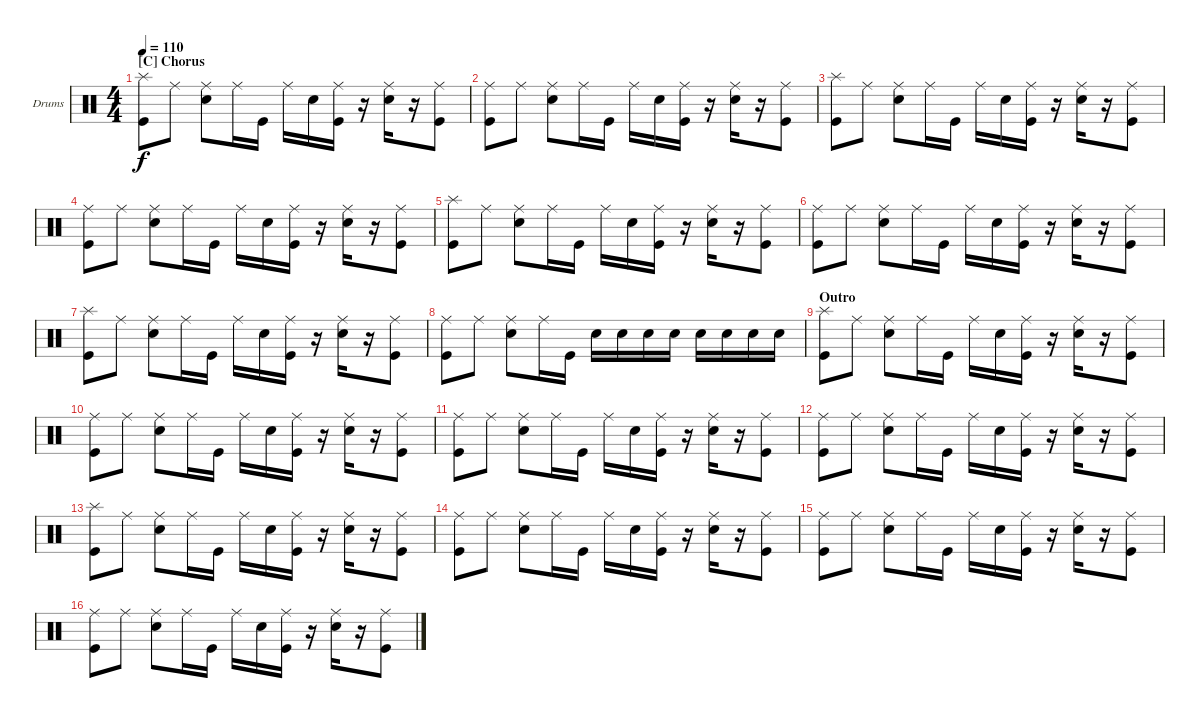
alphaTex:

\defaultSystemsLayout 4
\bracketExtendMode groupsimilarinstruments
\firstSystemTrackNameOrientation horizontal
\otherSystemsTrackNameOrientation horizontal
\track ("Drumkit" "Drums") {instrument percussion}
\staff {score}
\articulation defaults
\ts (4 4)
\section ("C" "Chorus ")
\tempo 110
\clef neutral
\ks c
("Splash (hit)" "Kick (hit)").8{dy f} "Ride (middle)".8 ("Snare (hit) 2" "Ride (middle)").8 "Ride (middle)".16 "Kick (hit)".16 "Ride (middle)".16 "Snare (hit) 2".16 ("Kick (hit)" "Ride (middle)").16 r.16 ("Snare (hit) 2" "Ride (middle)").16 r.16 ("Kick (hit)" "Ride (middle)").8 |
("Kick (hit)" "Ride (middle)").8 "Ride (middle)".8 ("Snare (hit) 2" "Ride (middle)").8 "Ride (middle)".16 "Kick (hit)".16 "Ride (middle)".16 "Snare (hit) 2".16 ("Kick (hit)" "Ride (middle)").16 r.16 ("Snare (hit) 2" "Ride (middle)").16 r.16 ("Kick (hit)" "Ride (middle)").8 |
("Splash (hit)" "Kick (hit)").8 "Ride (middle)".8 ("Snare (hit) 2" "Ride (middle)").8 "Ride (middle)".16 "Kick (hit)".16 "Ride (middle)".16 "Snare (hit) 2".16 ("Kick (hit)" "Ride (middle)").16 r.16 ("Snare (hit) 2" "Ride (middle)").16 r.16 ("Kick (hit)" "Ride (middle)").8 |
("Kick (hit)" "Ride (middle)").8 "Ride (middle)".8 ("Snare (hit) 2" "Ride (middle)").8 "Ride (middle)".16 "Kick (hit)".16 "Ride (middle)".16 "Snare (hit) 2".16 ("Kick (hit)" "Ride (middle)").16 r.16 ("Snare (hit) 2" "Ride (middle)").16 r.16 ("Kick (hit)" "Ride (middle)").8 |
("Splash (hit)" "Kick (hit)").8 "Ride (middle)".8 ("Snare (hit) 2" "Ride (middle)").8 "Ride (middle)".16 "Kick (hit)".16 "Ride (middle)".16 "Snare (hit) 2".16 ("Kick (hit)" "Ride (middle)").16 r.16 ("Snare (hit) 2" "Ride (middle)").16 r.16 ("Kick (hit)" "Ride (middle)").8 |
("Kick (hit)" "Ride (middle)").8 "Ride (middle)".8 ("Snare (hit) 2" "Ride (middle)").8 "Ride (middle)".16 "Kick (hit)".16 "Ride (middle)".16 "Snare (hit) 2".16 ("Kick (hit)" "Ride (middle)").16 r.16 ("Snare (hit) 2" "Ride (middle)").16 r.16 ("Kick (hit)" "Ride (middle)").8 |
("Splash (hit)" "Kick (hit)").8 "Ride (middle)".8 ("Snare (hit) 2" "Ride (middle)").8 "Ride (middle)".16 "Kick (hit)".16 "Ride (middle)".16 "Snare (hit) 2".16 ("Kick (hit)" "Ride (middle)").16 r.16 ("Snare (hit) 2" "Ride (middle)").16 r.16 ("Kick (hit)" "Ride (middle)").8 |
("Kick (hit)" "Ride (middle)").8 "Ride (middle)".8 ("Snare (hit) 2" "Ride (middle)").8 "Ride (middle)".16 "Kick (hit)".16 "Snare (hit) 2".16 "Snare (hit) 2".16 "Snare (hit) 2".16 "Snare (hit) 2".16 "Snare (hit) 2".16 "Snare (hit) 2".16 "Snare (hit) 2".16 "Snare (hit) 2".16 |
\section ("" "Outro")
("Splash (hit)" "Kick (hit)").8 "Ride (middle)".8 ("Snare (hit) 2" "Ride (middle)").8 "Ride (middle)".16 "Kick (hit)".16 "Ride (middle)".16 "Snare (hit) 2".16 ("Kick (hit)" "Ride (middle)").16 r.16 ("Snare (hit) 2" "Ride (middle)").16 r.16 ("Kick (hit)" "Ride (middle)").8 |
("Kick (hit)" "Ride (middle)").8 "Ride (middle)".8 ("Snare (hit) 2" "Ride (middle)").8 "Ride (middle)".16 "Kick (hit)".16 "Ride (middle)".16 "Snare (hit) 2".16 ("Kick (hit)" "Ride (middle)").16 r.16 ("Snare (hit) 2" "Ride (middle)").16 r.16 ("Kick (hit)" "Ride (middle)").8 |
("Kick (hit)" "Ride (middle)").8 "Ride (middle)".8 ("Snare (hit) 2" "Ride (middle)").8 "Ride (middle)".16 "Kick (hit)".16 "Ride (middle)".16 "Snare (hit) 2".16 ("Kick (hit)" "Ride (middle)").16 r.16 ("Snare (hit) 2" "Ride (middle)").16 r.16 ("Kick (hit)" "Ride (middle)").8 |
("Kick (hit)" "Ride (middle)").8 "Ride (middle)".8 ("Snare (hit) 2" "Ride (middle)").8 "Ride (middle)".16 "Kick (hit)".16 "Ride (middle)".16 "Snare (hit) 2".16 ("Kick (hit)" "Ride (middle)").16 r.16 ("Snare (hit) 2" "Ride (middle)").16 r.16 ("Kick (hit)" "Ride (middle)").8 |
("Splash (hit)" "Kick (hit)").8 "Ride (middle)".8 ("Snare (hit) 2" "Ride (middle)").8 "Ride (middle)".16 "Kick (hit)".16 "Ride (middle)".16 "Snare (hit) 2".16 ("Kick (hit)" "Ride (middle)").16 r.16 ("Snare (hit) 2" "Ride (middle)").16 r.16 ("Kick (hit)" "Ride (middle)").8 |
("Kick (hit)" "Ride (middle)").8 "Ride (middle)".8 ("Snare (hit) 2" "Ride (middle)").8 "Ride (middle)".16 "Kick (hit)".16 "Ride (middle)".16 "Snare (hit) 2".16 ("Kick (hit)" "Ride (middle)").16 r.16 ("Snare (hit) 2" "Ride (middle)").16 r.16 ("Kick (hit)" "Ride (middle)").8 |
("Kick (hit)" "Ride (middle)").8 "Ride (middle)".8 ("Snare (hit) 2" "Ride (middle)").8 "Ride (middle)".16 "Kick (hit)".16 "Ride (middle)".16 "Snare (hit) 2".16 ("Kick (hit)" "Ride (middle)").16 r.16 ("Snare (hit) 2" "Ride (middle)").16 r.16 ("Kick (hit)" "Ride (middle)").8 |
("Kick (hit)" "Ride (middle)").8 "Ride (middle)".8 ("Snare (hit) 2" "Ride (middle)").8 "Ride (middle)".16 "Kick (hit)".16 "Ride (middle)".16 "Snare (hit) 2".16 ("Kick (hit)" "Ride (middle)").16 r.16 ("Snare (hit) 2" "Ride (middle)").16 r.16 ("Kick (hit)" "Ride (middle)").8
